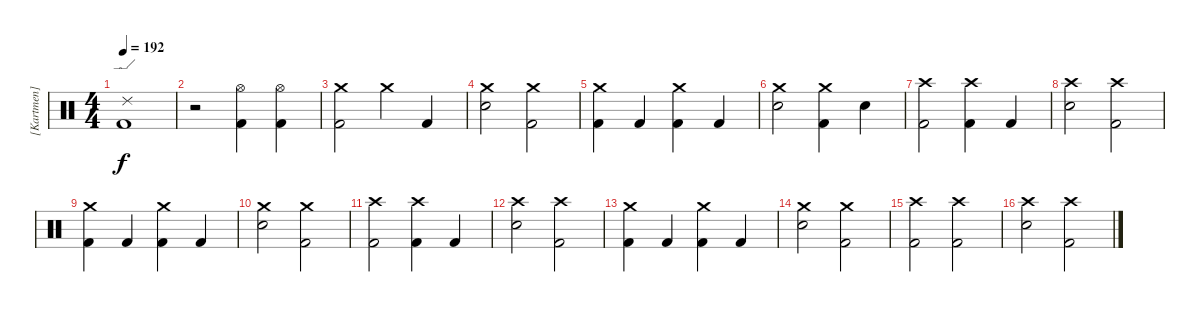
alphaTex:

\track ("[Kartmen] - Drums" "[Kartmen] ") {instrument percussion}
\staff {score}
\articulation defaults
\ts (4 4)
\tempo 192
\clef neutral
\ks c
("Ride (edge) 2" "Kick (hit) 2").1{dy f} |
r.2 ("Hi-Hat (open)" "Kick (hit) 2").4 ("Hi-Hat (open)" "Kick (hit) 2").4 |
("Crash medium (hit)" "Kick (hit) 2").2 "Crash medium (hit)".4 "Kick (hit) 2".4 |
("Crash medium (hit)" "Snare (hit) 2").2 ("Crash medium (hit)" "Kick (hit) 2").2 |
("Crash medium (hit)" "Kick (hit) 2").4 "Kick (hit) 2".4 ("Crash medium (hit)" "Kick (hit) 2").4 "Kick (hit) 2".4 |
("Crash medium (hit)" "Snare (hit) 2").2 ("Crash medium (hit)" "Kick (hit) 2").4 "Snare (hit) 2"{tr (38 16)}.4 |
("Crash high (hit)" "Kick (hit) 2").2 ("Crash high (hit)" "Kick (hit) 2").4 "Kick (hit) 2".4 |
("Crash high (hit)" "Snare (hit) 2").2 ("Crash high (hit)" "Kick (hit) 2").2 |
("Crash medium (hit)" "Kick (hit) 2").4 "Kick (hit) 2".4 ("Crash medium (hit)" "Kick (hit) 2").4 "Kick (hit) 2".4 |
("Crash medium (hit)" "Snare (hit) 2").2 ("Crash medium (hit)" "Kick (hit) 2").2 |
("Crash high (hit)" "Kick (hit) 2").2 ("Crash high (hit)" "Kick (hit) 2").4 "Kick (hit) 2".4 |
("Crash high (hit)" "Snare (hit) 2").2 ("Crash high (hit)" "Kick (hit) 2").2 |
("Crash medium (hit)" "Kick (hit) 2").4 "Kick (hit) 2".4 ("Crash medium (hit)" "Kick (hit) 2").4 "Kick (hit) 2".4 |
("Crash medium (hit)" "Snare (hit) 2").2 ("Crash medium (hit)" "Kick (hit) 2").2 |
("Crash high (hit)" "Kick (hit) 2").2 ("Crash high (hit)" "Kick (hit) 2").2 |
("Crash high (hit)" "Snare (hit) 2").2 ("Crash high (hit)" "Kick (hit) 2").2
